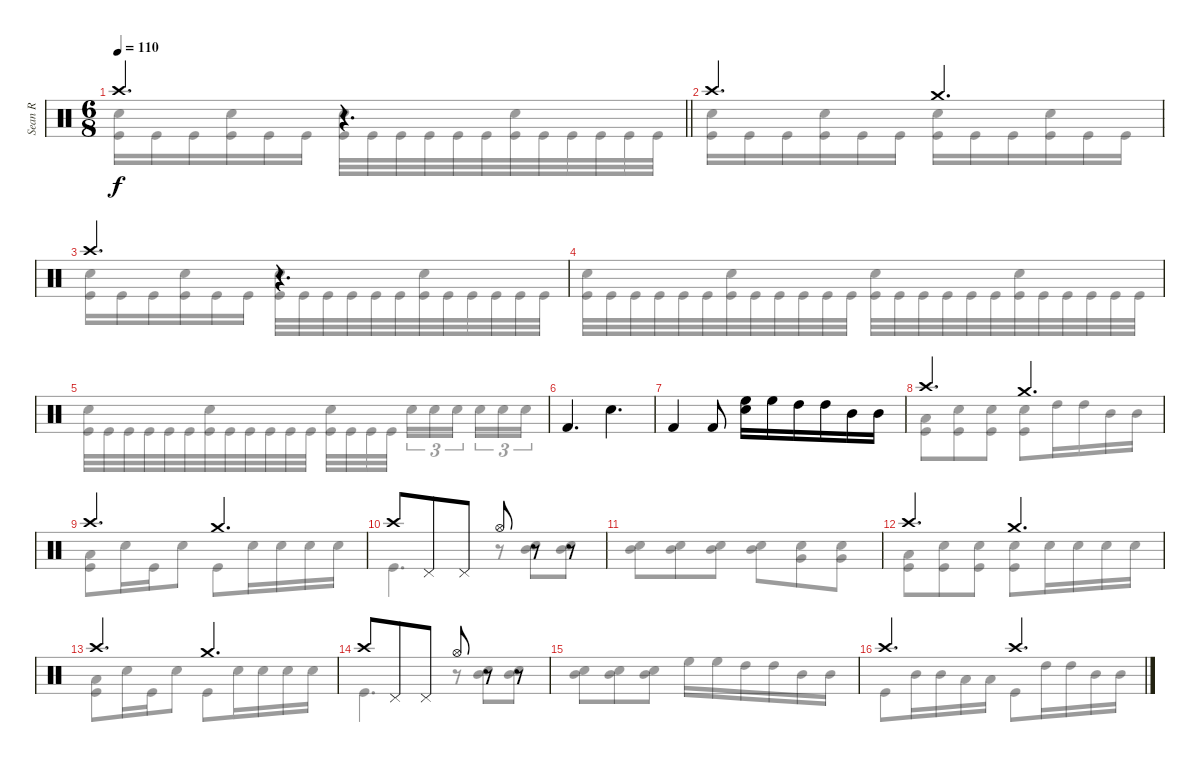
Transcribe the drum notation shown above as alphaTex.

\track ("Sean R" "Sean R") {instrument percussion}
\staff {score}
\articulation defaults
\voice
\ts (6 8)
\tempo 110
\clef neutral
\barLineRight lightlight
\ks c "Crash high (hit)".4{d dy f}
r.4{d} |
\section ("" "")
"Crash high (hit)".4{d} "Crash medium (hit)".4{d} |
"Crash high (hit)".4{d} r.4{d} |
|
|
"Kick (hit) 2".4{d} "Snare (hit) 2".4{d} |
"Kick (hit) 2".4 "Kick (hit) 2".8 ("High Floor Tom (hit)" "Snare (hit) 2").16 "High Floor Tom (hit)".16 "High Tom (hit)".16 "High Tom (hit)".16 "Mid Tom (hit)".16 "Mid Tom (hit)".16 |
"Crash high (hit)".4{d} "Crash medium (hit)".4{d} |
"Crash high (hit)".4{d} "Crash medium (hit)".4{d} |
"Crash high (hit)".8 "Pedal Hi-Hat (hit)".8 "Pedal Hi-Hat (hit)".8 "Hi-Hat (open)".8 r.8 r.8 |
|
"Crash high (hit)".4{d} "Crash medium (hit)".4{d} |
"Crash high (hit)".4{d} "Crash medium (hit)".4{d} |
"Crash high (hit)".8 "Pedal Hi-Hat (hit)".8 "Pedal Hi-Hat (hit)".8 "Hi-Hat (open)".8 r.8 r.8 |
|
"Crash high (hit)".4{d} "Crash high (hit)".4{d}
\voice
\clef neutral
\ottava regular
\simile none
\barLineRight lightlight
\ks c
("Snare (hit) 2" "Kick (hit)").16{dy f} "Kick (hit)".16 "Kick (hit)".16 ("Snare (hit) 2" "Kick (hit)").16 "Kick (hit)".16 "Kick (hit)".16 ("Snare (hit) 2" "Kick (hit)").32 "Kick (hit)".32 "Kick (hit)".32 "Kick (hit)".32 "Kick (hit)".32 "Kick (hit)".32 ("Snare (hit) 2" "Kick (hit)").32 "Kick (hit)".32 "Kick (hit)".32 "Kick (hit)".32 "Kick (hit)".32 "Kick (hit)".32 |
("Snare (hit) 2" "Kick (hit)").16 "Kick (hit)".16 "Kick (hit)".16 ("Snare (hit) 2" "Kick (hit)").16 "Kick (hit)".16 "Kick (hit)".16 ("Snare (hit) 2" "Kick (hit)").16 "Kick (hit)".16 "Kick (hit)".16 ("Snare (hit) 2" "Kick (hit)").16 "Kick (hit)".16 "Kick (hit)".16 |
("Snare (hit) 2" "Kick (hit)").16 "Kick (hit)".16 "Kick (hit)".16 ("Snare (hit) 2" "Kick (hit)").16 "Kick (hit)".16 "Kick (hit)".16 ("Snare (hit) 2" "Kick (hit)").32 "Kick (hit)".32 "Kick (hit)".32 "Kick (hit)".32 "Kick (hit)".32 "Kick (hit)".32 ("Snare (hit) 2" "Kick (hit)").32 "Kick (hit)".32 "Kick (hit)".32 "Kick (hit)".32 "Kick (hit)".32 "Kick (hit)".32 |
("Snare (hit) 2" "Kick (hit)").32 "Kick (hit)".32 "Kick (hit)".32 "Kick (hit)".32 "Kick (hit)".32 "Kick (hit)".32 ("Snare (hit) 2" "Kick (hit)").32 "Kick (hit)".32 "Kick (hit)".32 "Kick (hit)".32 "Kick (hit)".32 "Kick (hit)".32 ("Snare (hit) 2" "Kick (hit)").32 "Kick (hit)".32 "Kick (hit)".32 "Kick (hit)".32 "Kick (hit)".32 "Kick (hit)".32 ("Snare (hit) 2" "Kick (hit)").32 "Kick (hit)".32 "Kick (hit)".32 "Kick (hit)".32 "Kick (hit)".32 "Kick (hit)".32 |
("Snare (hit) 2" "Kick (hit)").32 "Kick (hit)".32 "Kick (hit)".32 "Kick (hit)".32 "Kick (hit)".32 "Kick (hit)".32 ("Snare (hit) 2" "Kick (hit)").32 "Kick (hit)".32 "Kick (hit)".32 "Kick (hit)".32 "Kick (hit)".32 "Kick (hit)".32 ("Snare (hit) 2" "Kick (hit)").32 "Kick (hit)".32 "Kick (hit)".32 "Kick (hit)".32{beam splitsecondary} "Snare (hit) 2".16{tu (3 2)} "Snare (hit) 2".16{tu (3 2)} "Snare (hit) 2".16{tu (3 2) beam splitsecondary} "Snare (hit) 2".16{tu (3 2)} "Snare (hit) 2".16{tu (3 2)} "Snare (hit) 2".16{tu (3 2)} |
|
|
("Low Tom (hit)" "Kick (hit)").8 ("Snare (hit) 2" "Kick (hit)").8 ("Snare (hit) 2" "Kick (hit)").8 ("Snare (hit) 2" "Kick (hit)").8 "High Tom (hit)".16 "High Tom (hit)".16 "Mid Tom (hit)".16 "Mid Tom (hit)".16 |
("Low Tom (hit)" "Kick (hit)").8 "Snare (hit) 2".16 "Kick (hit)".16 "Snare (hit) 2".8 "Kick (hit)".8 "Snare (hit) 2".16 "Snare (hit) 2".16 "Snare (hit) 2".16 "Snare (hit) 2".16 |
"Kick (hit)".4{d} r.8 ("Mid Tom (hit)" "Snare (hit) 2").8 ("Mid Tom (hit)" "Snare (hit) 2").8 |
("Mid Tom (hit)" "Snare (hit) 2").8 ("Mid Tom (hit)" "Snare (hit) 2").8 ("Mid Tom (hit)" "Snare (hit) 2").8 ("Mid Tom (hit)" "Snare (hit) 2").8 ("Very Low Tom (hit)" "Snare (hit) 2").8 ("Very Low Tom (hit)" "Snare (hit) 2").8 |
("Low Tom (hit)" "Kick (hit)").8 ("Snare (hit) 2" "Kick (hit)").8 ("Snare (hit) 2" "Kick (hit)").8 ("Snare (hit) 2" "Kick (hit)").8 "Snare (hit) 2".16 "Snare (hit) 2".16 "Snare (hit) 2".16 "Snare (hit) 2".16 |
("Low Tom (hit)" "Kick (hit)").8 "Snare (hit) 2".16 "Kick (hit)".16 "Snare (hit) 2".8 "Kick (hit)".8 "Snare (hit) 2".16 "Snare (hit) 2".16 "Snare (hit) 2".16 "Snare (hit) 2".16 |
"Kick (hit)".4{d} r.8 ("Mid Tom (hit)" "Snare (hit) 2").8 ("Mid Tom (hit)" "Snare (hit) 2").8 |
("Mid Tom (hit)" "Snare (hit) 2").8 ("Mid Tom (hit)" "Snare (hit) 2").8 ("Mid Tom (hit)" "Snare (hit) 2").8 "High Floor Tom (hit)".16 "High Floor Tom (hit)".16 "High Tom (hit)".16 "High Tom (hit)".16 "Mid Tom (hit)".16 "Mid Tom (hit)".16 |
"Kick (hit)".8 "Mid Tom (hit)".16 "Mid Tom (hit)".16 "Low Tom (hit)".16 "Low Tom (hit)".16 "Kick (hit)".8 "High Tom (hit)".16 "High Tom (hit)".16 "Mid Tom (hit)".16 "Mid Tom (hit)".16
